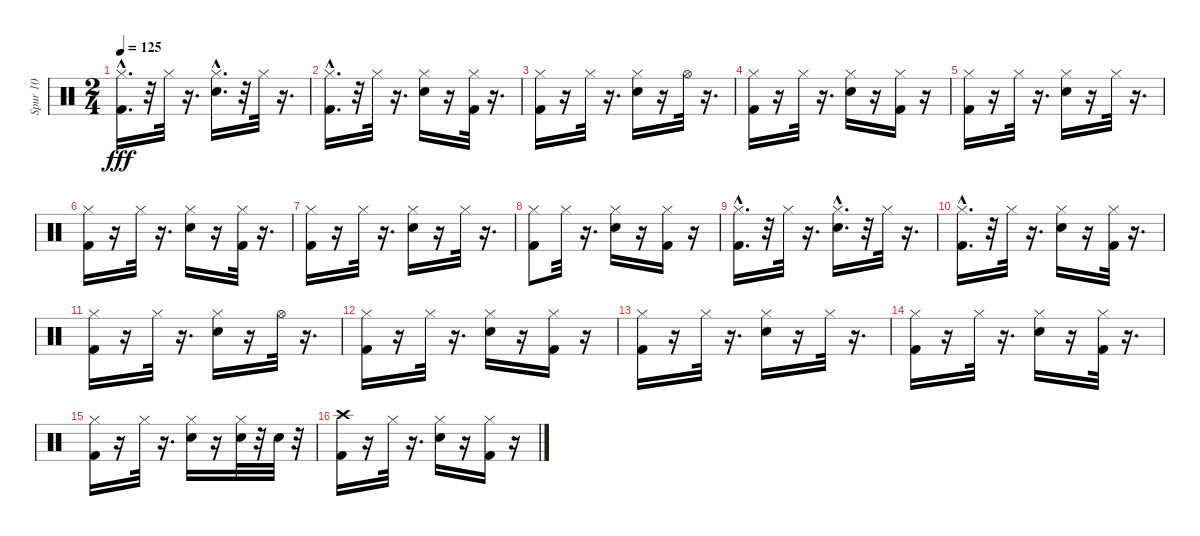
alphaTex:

\track ("Spur 10" "Spur 10") {instrument percussion}
\staff {score}
\articulation defaults
\ts (2 4)
\tempo 125
\clef neutral
\ks c
("Kick (hit) 2"{hac} "Hi-Hat (closed)").16{d dy fff} r.32 "Hi-Hat (closed)".32 r.16{d} ("Snare (hit) 2"{hac} "Hi-Hat (closed)").16{d} r.32 "Hi-Hat (closed)".32 r.16{d} |
("Kick (hit) 2"{hac} "Hi-Hat (closed)").16{d} r.32 "Hi-Hat (closed)".32 r.16{d} ("Snare (hit) 2" "Hi-Hat (closed)").16 r.16 ("Kick (hit) 2" "Hi-Hat (closed)").32 r.16{d} |
("Kick (hit) 2" "Hi-Hat (closed)").16 r.16 "Hi-Hat (closed)".32 r.16{d} ("Snare (hit) 2" "Hi-Hat (closed)").16 r.16 "Hi-Hat (open)".32 r.16{d} |
("Kick (hit) 2" "Hi-Hat (closed)").16 r.16 "Hi-Hat (closed)".32 r.16{d} ("Snare (hit) 2" "Hi-Hat (closed)").16 r.16 ("Kick (hit) 2" "Hi-Hat (closed)").16 r.16 |
("Kick (hit) 2" "Hi-Hat (closed)").16 r.16 "Hi-Hat (closed)".32 r.16{d} ("Snare (hit) 2" "Hi-Hat (closed)").16 r.16 "Hi-Hat (closed)".32 r.16{d} |
("Kick (hit) 2" "Hi-Hat (closed)").16 r.16 "Hi-Hat (closed)".32 r.16{d} ("Snare (hit) 2" "Hi-Hat (closed)").16 r.16 ("Kick (hit) 2" "Hi-Hat (closed)").32 r.16{d} |
("Kick (hit) 2" "Hi-Hat (closed)").16 r.16 "Hi-Hat (closed)".32 r.16{d} ("Snare (hit) 2" "Hi-Hat (closed)").16 r.16 "Hi-Hat (closed)".32 r.16{d} |
("Kick (hit) 2" "Hi-Hat (closed)").8 "Hi-Hat (closed)".32 r.16{d} ("Snare (hit) 2" "Hi-Hat (closed)").16 r.16 ("Kick (hit) 2" "Hi-Hat (closed)").16 r.16 |
("Kick (hit) 2"{hac} "Hi-Hat (closed)").16{d} r.32 "Hi-Hat (closed)".32 r.16{d} ("Snare (hit) 2"{hac} "Hi-Hat (closed)").16{d} r.32 "Hi-Hat (closed)".32 r.16{d} |
("Kick (hit) 2"{hac} "Hi-Hat (closed)").16{d} r.32 "Hi-Hat (closed)".32 r.16{d} ("Snare (hit) 2" "Hi-Hat (closed)").16 r.16 ("Kick (hit) 2" "Hi-Hat (closed)").32 r.16{d} |
("Kick (hit) 2" "Hi-Hat (closed)").16 r.16 "Hi-Hat (closed)".32 r.16{d} ("Snare (hit) 2" "Hi-Hat (closed)").16 r.16 "Hi-Hat (open)".32 r.16{d} |
("Kick (hit) 2" "Hi-Hat (closed)").16 r.16 "Hi-Hat (closed)".32 r.16{d} ("Snare (hit) 2" "Hi-Hat (closed)").16 r.16 ("Kick (hit) 2" "Hi-Hat (closed)").16 r.16 |
("Kick (hit) 2" "Hi-Hat (closed)").16 r.16 "Hi-Hat (closed)".32 r.16{d} ("Snare (hit) 2" "Hi-Hat (closed)").16 r.16 "Hi-Hat (closed)".32 r.16{d} |
("Kick (hit) 2" "Hi-Hat (closed)").16 r.16 "Hi-Hat (closed)".32 r.16{d} ("Snare (hit) 2" "Hi-Hat (closed)").16 r.16 ("Kick (hit) 2" "Hi-Hat (closed)").32 r.16{d} |
("Kick (hit) 2" "Hi-Hat (closed)").16 r.16 "Hi-Hat (closed)".32 r.16{d} ("Snare (hit) 2" "Hi-Hat (closed)").16 r.16 ("Snare (hit) 2" "Hi-Hat (closed)").32 r.32 "Snare (hit) 2".32 r.32 |
("Kick (hit) 2" "Crash high (hit)").16 r.16 "Hi-Hat (closed)".32 r.16{d} ("Snare (hit) 2" "Hi-Hat (closed)").16 r.16 ("Kick (hit) 2" "Hi-Hat (closed)").16 r.16
